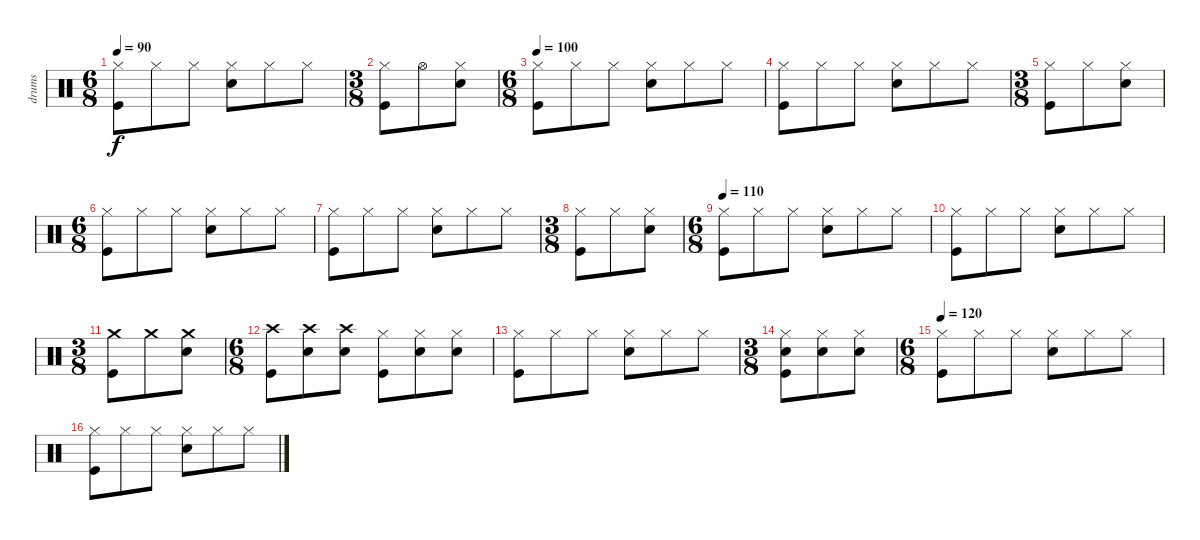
\track ("drums" "drums") {instrument percussion}
\staff {score}
\articulation defaults
\ts (6 8)
\tempo 90
\clef neutral
\ks c
("Hi-Hat (closed)" "Kick (hit)").8{dy f} "Hi-Hat (closed)".8 "Hi-Hat (closed)".8 ("Hi-Hat (closed)" "Snare (hit) 2").8 "Hi-Hat (closed)".8 "Hi-Hat (closed)".8 |
\ts (3 8)
("Hi-Hat (closed)" "Kick (hit)").8 "Hi-Hat (open)".8 ("Hi-Hat (closed)" "Snare (hit) 2").8 |
\ts (6 8)
\tempo 100
("Hi-Hat (closed)" "Kick (hit)").8 "Hi-Hat (closed)".8 "Hi-Hat (closed)".8 ("Hi-Hat (closed)" "Snare (hit) 2").8 "Hi-Hat (closed)".8 "Hi-Hat (closed)".8 |
("Hi-Hat (closed)" "Kick (hit)").8 "Hi-Hat (closed)".8 "Hi-Hat (closed)".8 ("Hi-Hat (closed)" "Snare (hit) 2").8 "Hi-Hat (closed)".8 "Hi-Hat (closed)".8 |
\ts (3 8)
("Hi-Hat (closed)" "Kick (hit)").8 "Hi-Hat (closed)".8 ("Hi-Hat (closed)" "Snare (hit) 2").8 |
\ts (6 8)
("Hi-Hat (closed)" "Kick (hit)").8 "Hi-Hat (closed)".8 "Hi-Hat (closed)".8 ("Hi-Hat (closed)" "Snare (hit) 2").8 "Hi-Hat (closed)".8 "Hi-Hat (closed)".8 |
("Hi-Hat (closed)" "Kick (hit)").8 "Hi-Hat (closed)".8 "Hi-Hat (closed)".8 ("Hi-Hat (closed)" "Snare (hit) 2").8 "Hi-Hat (closed)".8 "Hi-Hat (closed)".8 |
\ts (3 8)
("Hi-Hat (closed)" "Kick (hit)").8 "Hi-Hat (closed)".8 ("Hi-Hat (closed)" "Snare (hit) 2").8 |
\ts (6 8)
\section ("" "")
\tempo 110
("Hi-Hat (closed)" "Kick (hit)").8 "Hi-Hat (closed)".8 "Hi-Hat (closed)".8 ("Hi-Hat (closed)" "Snare (hit) 2").8 "Hi-Hat (closed)".8 "Hi-Hat (closed)".8 |
("Hi-Hat (closed)" "Kick (hit)").8 "Hi-Hat (closed)".8 "Hi-Hat (closed)".8 ("Hi-Hat (closed)" "Snare (hit) 2").8 "Hi-Hat (closed)".8 "Hi-Hat (closed)".8 |
\ts (3 8)
("Crash medium (hit)" "Kick (hit)").8 "Crash medium (hit)".8 ("Crash medium (hit)" "Snare (hit) 2").8 |
\ts (6 8)
("Crash high (hit)" "Kick (hit)").8 ("Crash high (hit)" "Snare (hit) 2").8 ("Crash high (hit)" "Snare (hit) 2").8 ("Hi-Hat (closed)" "Kick (hit)").8 ("Hi-Hat (closed)" "Snare (hit) 2").8 ("Hi-Hat (closed)" "Snare (hit) 2").8 |
("Hi-Hat (closed)" "Kick (hit)").8 "Hi-Hat (closed)".8 "Hi-Hat (closed)".8 ("Hi-Hat (closed)" "Snare (hit) 2").8 "Hi-Hat (closed)".8 "Hi-Hat (closed)".8 |
\ts (3 8)
("Hi-Hat (closed)" "Snare (hit) 2" "Kick (hit)").8 ("Hi-Hat (closed)" "Snare (hit) 2").8 ("Hi-Hat (closed)" "Snare (hit) 2").8 |
\ts (6 8)
\tempo 120
("Hi-Hat (closed)" "Kick (hit)").8 "Hi-Hat (closed)".8 "Hi-Hat (closed)".8 ("Hi-Hat (closed)" "Snare (hit) 2").8 "Hi-Hat (closed)".8 "Hi-Hat (closed)".8 |
("Hi-Hat (closed)" "Kick (hit)").8 "Hi-Hat (closed)".8 "Hi-Hat (closed)".8 ("Hi-Hat (closed)" "Snare (hit) 2").8 "Hi-Hat (closed)".8 "Hi-Hat (closed)".8
